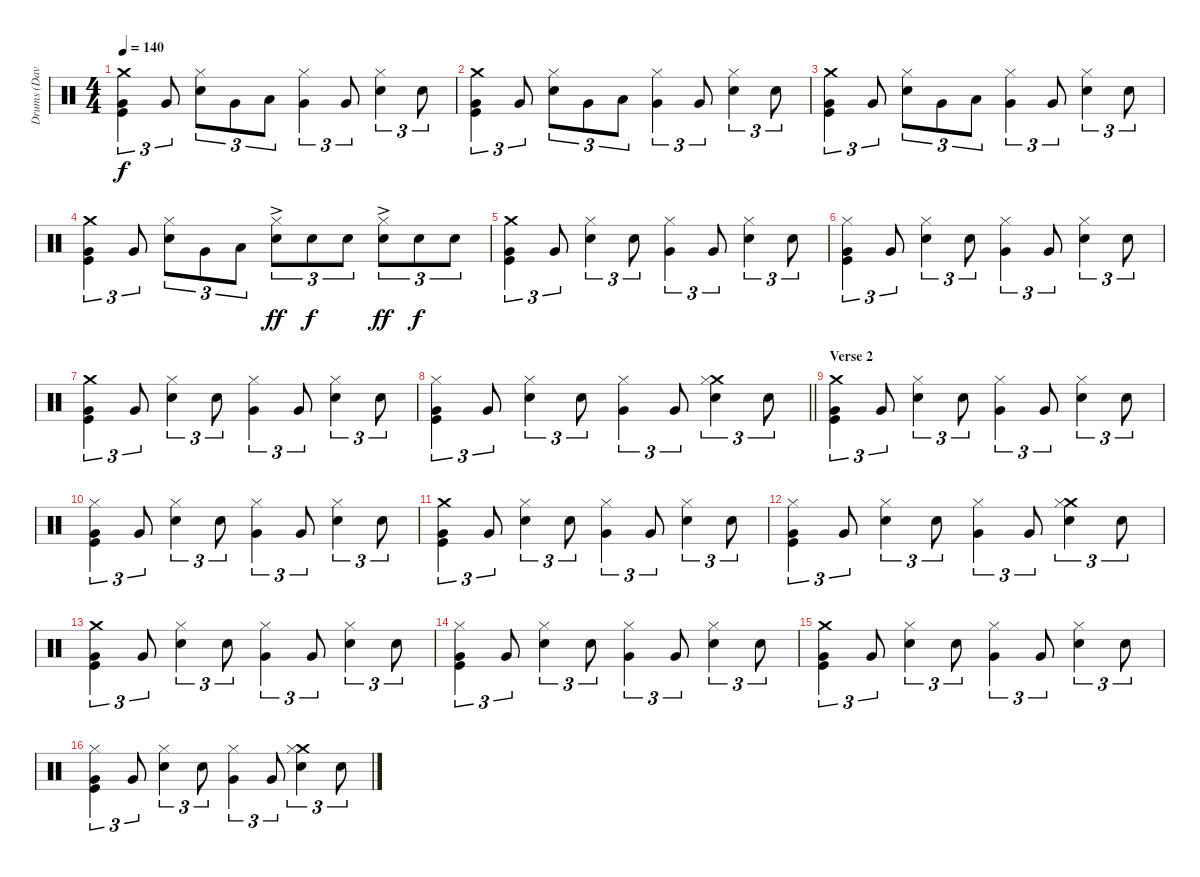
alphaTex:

\track ("Drums (Dave Atkins)" "Drums (Dav") {instrument percussion}
\staff {score}
\articulation defaults
\ts (4 4)
\tempo 140
\clef neutral
\ks c
("Crash medium (hit)" "Very Low Tom (hit)" "Kick (hit)").4{tu (3 2) dy f} "Very Low Tom (hit)".8{tu (3 2)} ("Hi-Hat (closed)" "Snare (hit) 2").8{tu (3 2)} "Very Low Tom (hit)".8{tu (3 2)} "Low Floor Tom (hit)".8{tu (3 2)} ("Hi-Hat (closed)" "Very Low Tom (hit)").4{tu (3 2)} "Very Low Tom (hit)".8{tu (3 2)} ("Hi-Hat (closed)" "Snare (hit) 2").4{tu (3 2)} "Snare (hit) 2".8{tu (3 2)} |
("Crash medium (hit)" "Very Low Tom (hit)" "Kick (hit)").4{tu (3 2)} "Very Low Tom (hit)".8{tu (3 2)} ("Hi-Hat (closed)" "Snare (hit) 2").8{tu (3 2)} "Very Low Tom (hit)".8{tu (3 2)} "Low Floor Tom (hit)".8{tu (3 2)} ("Hi-Hat (closed)" "Very Low Tom (hit)").4{tu (3 2)} "Very Low Tom (hit)".8{tu (3 2)} ("Hi-Hat (closed)" "Snare (hit) 2").4{tu (3 2)} "Snare (hit) 2".8{tu (3 2)} |
("Crash medium (hit)" "Very Low Tom (hit)" "Kick (hit)").4{tu (3 2)} "Very Low Tom (hit)".8{tu (3 2)} ("Hi-Hat (closed)" "Snare (hit) 2").8{tu (3 2)} "Very Low Tom (hit)".8{tu (3 2)} "Low Floor Tom (hit)".8{tu (3 2)} ("Hi-Hat (closed)" "Very Low Tom (hit)").4{tu (3 2)} "Very Low Tom (hit)".8{tu (3 2)} ("Hi-Hat (closed)" "Snare (hit) 2").4{tu (3 2)} "Snare (hit) 2".8{tu (3 2)} |
("Crash medium (hit)" "Very Low Tom (hit)" "Kick (hit)").4{tu (3 2)} "Very Low Tom (hit)".8{tu (3 2)} ("Hi-Hat (closed)" "Snare (hit) 2").8{tu (3 2)} "Very Low Tom (hit)".8{tu (3 2)} "Low Floor Tom (hit)".8{tu (3 2)} ("Hi-Hat (closed)" "Snare (hit) 2"{ac}).8{tu (3 2) dy ff} "Snare (hit) 2".8{tu (3 2) dy f} "Snare (hit) 2".8{tu (3 2)} ("Hi-Hat (closed)" "Snare (hit) 2"{ac}).8{tu (3 2) dy ff} "Snare (hit) 2".8{tu (3 2) dy f} "Snare (hit) 2".8{tu (3 2)} |
("Crash medium (hit)" "Very Low Tom (hit)" "Kick (hit)").4{tu (3 2)} "Very Low Tom (hit)".8{tu (3 2)} ("Hi-Hat (closed)" "Snare (hit) 2").4{tu (3 2)} "Snare (hit) 2".8{tu (3 2)} ("Hi-Hat (closed)" "Very Low Tom (hit)").4{tu (3 2)} "Very Low Tom (hit)".8{tu (3 2)} ("Hi-Hat (closed)" "Snare (hit) 2").4{tu (3 2)} "Snare (hit) 2".8{tu (3 2)} |
("Hi-Hat (closed)" "Very Low Tom (hit)" "Kick (hit)").4{tu (3 2)} "Very Low Tom (hit)".8{tu (3 2)} ("Hi-Hat (closed)" "Snare (hit) 2").4{tu (3 2)} "Snare (hit) 2".8{tu (3 2)} ("Hi-Hat (closed)" "Very Low Tom (hit)").4{tu (3 2)} "Very Low Tom (hit)".8{tu (3 2)} ("Hi-Hat (closed)" "Snare (hit) 2").4{tu (3 2)} "Snare (hit) 2".8{tu (3 2)} |
("Crash medium (hit)" "Very Low Tom (hit)" "Kick (hit)").4{tu (3 2)} "Very Low Tom (hit)".8{tu (3 2)} ("Hi-Hat (closed)" "Snare (hit) 2").4{tu (3 2)} "Snare (hit) 2".8{tu (3 2)} ("Hi-Hat (closed)" "Very Low Tom (hit)").4{tu (3 2)} "Very Low Tom (hit)".8{tu (3 2)} ("Hi-Hat (closed)" "Snare (hit) 2").4{tu (3 2)} "Snare (hit) 2".8{tu (3 2)} |
\barLineRight lightlight
("Hi-Hat (closed)" "Very Low Tom (hit)" "Kick (hit)").4{tu (3 2)} "Very Low Tom (hit)".8{tu (3 2)} ("Hi-Hat (closed)" "Snare (hit) 2").4{tu (3 2)} "Snare (hit) 2".8{tu (3 2)} ("Hi-Hat (closed)" "Very Low Tom (hit)").4{tu (3 2)} "Very Low Tom (hit)".8{tu (3 2)} ("Crash medium (hit)" "Hi-Hat (closed)" "Snare (hit) 2").4{tu (3 2)} "Snare (hit) 2".8{tu (3 2)} |
\section ("" "Verse 2")
("Crash medium (hit)" "Very Low Tom (hit)" "Kick (hit)").4{tu (3 2)} "Very Low Tom (hit)".8{tu (3 2)} ("Hi-Hat (closed)" "Snare (hit) 2").4{tu (3 2)} "Snare (hit) 2".8{tu (3 2)} ("Hi-Hat (closed)" "Very Low Tom (hit)").4{tu (3 2)} "Very Low Tom (hit)".8{tu (3 2)} ("Hi-Hat (closed)" "Snare (hit) 2").4{tu (3 2)} "Snare (hit) 2".8{tu (3 2)} |
("Hi-Hat (closed)" "Very Low Tom (hit)" "Kick (hit)").4{tu (3 2)} "Very Low Tom (hit)".8{tu (3 2)} ("Hi-Hat (closed)" "Snare (hit) 2").4{tu (3 2)} "Snare (hit) 2".8{tu (3 2)} ("Hi-Hat (closed)" "Very Low Tom (hit)").4{tu (3 2)} "Very Low Tom (hit)".8{tu (3 2)} ("Hi-Hat (closed)" "Snare (hit) 2").4{tu (3 2)} "Snare (hit) 2".8{tu (3 2)} |
("Crash medium (hit)" "Very Low Tom (hit)" "Kick (hit)").4{tu (3 2)} "Very Low Tom (hit)".8{tu (3 2)} ("Hi-Hat (closed)" "Snare (hit) 2").4{tu (3 2)} "Snare (hit) 2".8{tu (3 2)} ("Hi-Hat (closed)" "Very Low Tom (hit)").4{tu (3 2)} "Very Low Tom (hit)".8{tu (3 2)} ("Hi-Hat (closed)" "Snare (hit) 2").4{tu (3 2)} "Snare (hit) 2".8{tu (3 2)} |
("Hi-Hat (closed)" "Very Low Tom (hit)" "Kick (hit)").4{tu (3 2)} "Very Low Tom (hit)".8{tu (3 2)} ("Hi-Hat (closed)" "Snare (hit) 2").4{tu (3 2)} "Snare (hit) 2".8{tu (3 2)} ("Hi-Hat (closed)" "Very Low Tom (hit)").4{tu (3 2)} "Very Low Tom (hit)".8{tu (3 2)} ("Crash medium (hit)" "Hi-Hat (closed)" "Snare (hit) 2").4{tu (3 2)} "Snare (hit) 2".8{tu (3 2)} |
("Crash medium (hit)" "Very Low Tom (hit)" "Kick (hit)").4{tu (3 2)} "Very Low Tom (hit)".8{tu (3 2)} ("Hi-Hat (closed)" "Snare (hit) 2").4{tu (3 2)} "Snare (hit) 2".8{tu (3 2)} ("Hi-Hat (closed)" "Very Low Tom (hit)").4{tu (3 2)} "Very Low Tom (hit)".8{tu (3 2)} ("Hi-Hat (closed)" "Snare (hit) 2").4{tu (3 2)} "Snare (hit) 2".8{tu (3 2)} |
("Hi-Hat (closed)" "Very Low Tom (hit)" "Kick (hit)").4{tu (3 2)} "Very Low Tom (hit)".8{tu (3 2)} ("Hi-Hat (closed)" "Snare (hit) 2").4{tu (3 2)} "Snare (hit) 2".8{tu (3 2)} ("Hi-Hat (closed)" "Very Low Tom (hit)").4{tu (3 2)} "Very Low Tom (hit)".8{tu (3 2)} ("Hi-Hat (closed)" "Snare (hit) 2").4{tu (3 2)} "Snare (hit) 2".8{tu (3 2)} |
("Crash medium (hit)" "Very Low Tom (hit)" "Kick (hit)").4{tu (3 2)} "Very Low Tom (hit)".8{tu (3 2)} ("Hi-Hat (closed)" "Snare (hit) 2").4{tu (3 2)} "Snare (hit) 2".8{tu (3 2)} ("Hi-Hat (closed)" "Very Low Tom (hit)").4{tu (3 2)} "Very Low Tom (hit)".8{tu (3 2)} ("Hi-Hat (closed)" "Snare (hit) 2").4{tu (3 2)} "Snare (hit) 2".8{tu (3 2)} |
("Hi-Hat (closed)" "Very Low Tom (hit)" "Kick (hit)").4{tu (3 2)} "Very Low Tom (hit)".8{tu (3 2)} ("Hi-Hat (closed)" "Snare (hit) 2").4{tu (3 2)} "Snare (hit) 2".8{tu (3 2)} ("Hi-Hat (closed)" "Very Low Tom (hit)").4{tu (3 2)} "Very Low Tom (hit)".8{tu (3 2)} ("Crash medium (hit)" "Hi-Hat (closed)" "Snare (hit) 2").4{tu (3 2)} "Snare (hit) 2".8{tu (3 2)}
